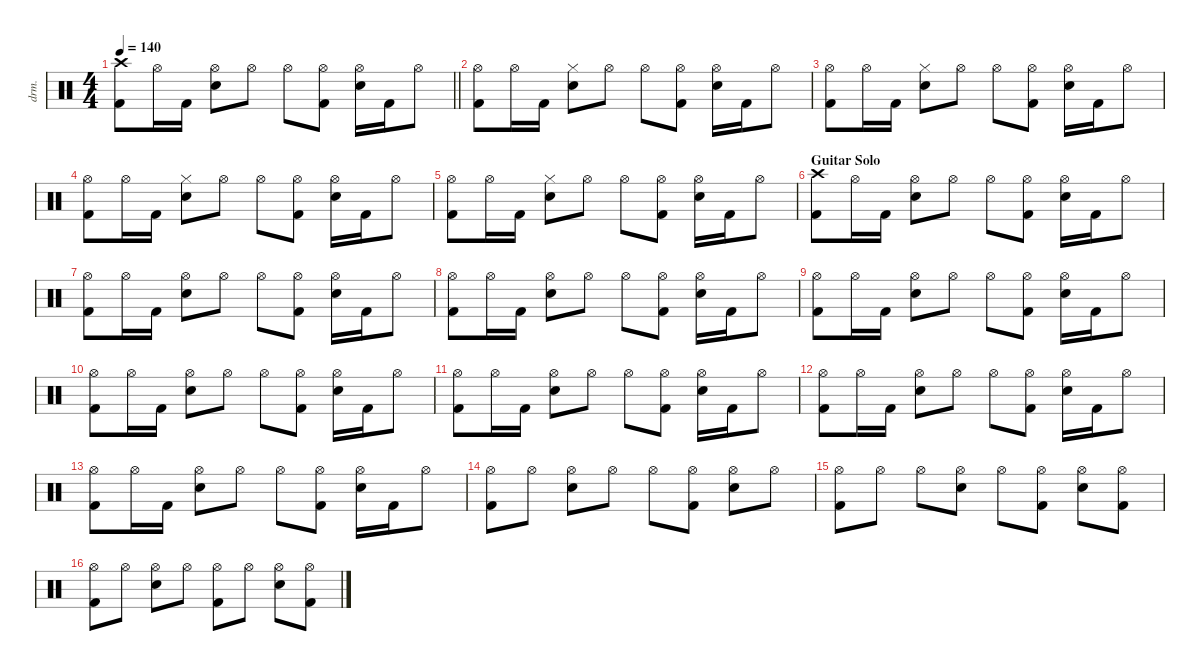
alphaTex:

\defaultSystemsLayout 4
\hideDynamics
\bracketExtendMode nobrackets
\otherSystemsTrackNameOrientation horizontal
\track ("Drums" "drm.") {defaultSystemsLayout 4 instrument percussion}
\staff {score}
\articulation defaults
\ts (4 4)
\tempo 140
\clef neutral
\barLineRight lightlight
\ks c
("Crash high (hit)" "Kick (hit) 2").8{dy mf beam Down} "Hi-Hat (open)".16{beam Down} "Kick (hit) 2".16{dy f beam Down} ("Hi-Hat (open)" "Snare (hit) 2").8{dy mf beam Down} "Hi-Hat (open)".8{beam Down} "Hi-Hat (open)".8{beam Down} ("Hi-Hat (open)" "Kick (hit) 2").8{beam Down} ("Hi-Hat (open)" "Snare (hit) 2").16{beam Down} "Kick (hit) 2".16{dy f beam Down} "Hi-Hat (open)".8{dy mf beam Down} |
("Hi-Hat (open)" "Kick (hit) 2").8{beam Down} "Hi-Hat (open)".16{beam Down} "Kick (hit) 2".16{dy f beam Down} ("Hi-Hat (closed)" "Snare (hit) 2").8{beam Down} "Hi-Hat (open)".8{dy mf beam Down} "Hi-Hat (open)".8{beam Down} ("Hi-Hat (open)" "Kick (hit) 2").8{beam Down} ("Hi-Hat (open)" "Snare (hit) 2").16{beam Down} "Kick (hit) 2".16{dy f beam Down} "Hi-Hat (open)".8{dy mf beam Down} |
("Hi-Hat (open)" "Kick (hit) 2").8{beam Down} "Hi-Hat (open)".16{beam Down} "Kick (hit) 2".16{dy f beam Down} ("Hi-Hat (closed)" "Snare (hit) 2").8{beam Down} "Hi-Hat (open)".8{dy mf beam Down} "Hi-Hat (open)".8{beam Down} ("Hi-Hat (open)" "Kick (hit) 2").8{beam Down} ("Hi-Hat (open)" "Snare (hit) 2").16{beam Down} "Kick (hit) 2".16{dy f beam Down} "Hi-Hat (open)".8{dy mf beam Down} |
("Hi-Hat (open)" "Kick (hit) 2").8{beam Down} "Hi-Hat (open)".16{beam Down} "Kick (hit) 2".16{dy f beam Down} ("Hi-Hat (closed)" "Snare (hit) 2").8{beam Down} "Hi-Hat (open)".8{dy mf beam Down} "Hi-Hat (open)".8{beam Down} ("Hi-Hat (open)" "Kick (hit) 2").8{beam Down} ("Hi-Hat (open)" "Snare (hit) 2").16{beam Down} "Kick (hit) 2".16{dy f beam Down} "Hi-Hat (open)".8{dy mf beam Down} |
("Hi-Hat (open)" "Kick (hit) 2").8{beam Down} "Hi-Hat (open)".16{beam Down} "Kick (hit) 2".16{dy f beam Down} ("Hi-Hat (closed)" "Snare (hit) 2").8{beam Down} "Hi-Hat (open)".8{dy mf beam Down} "Hi-Hat (open)".8{beam Down} ("Hi-Hat (open)" "Kick (hit) 2").8{beam Down} ("Hi-Hat (open)" "Snare (hit) 2").16{beam Down} "Kick (hit) 2".16{dy f beam Down} "Hi-Hat (open)".8{dy mf beam Down} |
\section ("" "Guitar Solo")
("Crash high (hit)" "Kick (hit) 2").8{beam Down} "Hi-Hat (open)".16{beam Down} "Kick (hit) 2".16{dy f beam Down} ("Hi-Hat (open)" "Snare (hit) 2").8{dy mf beam Down} "Hi-Hat (open)".8{beam Down} "Hi-Hat (open)".8{beam Down} ("Hi-Hat (open)" "Kick (hit) 2").8{beam Down} ("Hi-Hat (open)" "Snare (hit) 2").16{beam Down} "Kick (hit) 2".16{dy f beam Down} "Hi-Hat (open)".8{dy mf beam Down} |
("Hi-Hat (open)" "Kick (hit) 2").8{beam Down} "Hi-Hat (open)".16{beam Down} "Kick (hit) 2".16{dy f beam Down} ("Hi-Hat (open)" "Snare (hit) 2").8{dy mf beam Down} "Hi-Hat (open)".8{beam Down} "Hi-Hat (open)".8{beam Down} ("Hi-Hat (open)" "Kick (hit) 2").8{beam Down} ("Hi-Hat (open)" "Snare (hit) 2").16{beam Down} "Kick (hit) 2".16{dy f beam Down} "Hi-Hat (open)".8{dy mf beam Down} |
("Hi-Hat (open)" "Kick (hit) 2").8{beam Down} "Hi-Hat (open)".16{beam Down} "Kick (hit) 2".16{dy f beam Down} ("Hi-Hat (open)" "Snare (hit) 2").8{dy mf beam Down} "Hi-Hat (open)".8{beam Down} "Hi-Hat (open)".8{beam Down} ("Hi-Hat (open)" "Kick (hit) 2").8{beam Down} ("Hi-Hat (open)" "Snare (hit) 2").16{beam Down} "Kick (hit) 2".16{dy f beam Down} "Hi-Hat (open)".8{dy mf beam Down} |
("Hi-Hat (open)" "Kick (hit) 2").8{beam Down} "Hi-Hat (open)".16{beam Down} "Kick (hit) 2".16{dy f beam Down} ("Hi-Hat (open)" "Snare (hit) 2").8{dy mf beam Down} "Hi-Hat (open)".8{beam Down} "Hi-Hat (open)".8{beam Down} ("Hi-Hat (open)" "Kick (hit) 2").8{beam Down} ("Hi-Hat (open)" "Snare (hit) 2").16{beam Down} "Kick (hit) 2".16{dy f beam Down} "Hi-Hat (open)".8{dy mf beam Down} |
("Hi-Hat (open)" "Kick (hit) 2").8{beam Down} "Hi-Hat (open)".16{beam Down} "Kick (hit) 2".16{dy f beam Down} ("Hi-Hat (open)" "Snare (hit) 2").8{dy mf beam Down} "Hi-Hat (open)".8{beam Down} "Hi-Hat (open)".8{beam Down} ("Hi-Hat (open)" "Kick (hit) 2").8{beam Down} ("Hi-Hat (open)" "Snare (hit) 2").16{beam Down} "Kick (hit) 2".16{dy f beam Down} "Hi-Hat (open)".8{dy mf beam Down} |
("Hi-Hat (open)" "Kick (hit) 2").8{beam Down} "Hi-Hat (open)".16{beam Down} "Kick (hit) 2".16{dy f beam Down} ("Hi-Hat (open)" "Snare (hit) 2").8{dy mf beam Down} "Hi-Hat (open)".8{beam Down} "Hi-Hat (open)".8{beam Down} ("Hi-Hat (open)" "Kick (hit) 2").8{beam Down} ("Hi-Hat (open)" "Snare (hit) 2").16{beam Down} "Kick (hit) 2".16{dy f beam Down} "Hi-Hat (open)".8{dy mf beam Down} |
("Hi-Hat (open)" "Kick (hit) 2").8{beam Down} "Hi-Hat (open)".16{beam Down} "Kick (hit) 2".16{dy f beam Down} ("Hi-Hat (open)" "Snare (hit) 2").8{dy mf beam Down} "Hi-Hat (open)".8{beam Down} "Hi-Hat (open)".8{beam Down} ("Hi-Hat (open)" "Kick (hit) 2").8{beam Down} ("Hi-Hat (open)" "Snare (hit) 2").16{beam Down} "Kick (hit) 2".16{dy f beam Down} "Hi-Hat (open)".8{dy mf beam Down} |
("Hi-Hat (open)" "Kick (hit) 2").8{beam Down} "Hi-Hat (open)".16{beam Down} "Kick (hit) 2".16{dy f beam Down} ("Hi-Hat (open)" "Snare (hit) 2").8{dy mf beam Down} "Hi-Hat (open)".8{beam Down} "Hi-Hat (open)".8{beam Down} ("Hi-Hat (open)" "Kick (hit) 2").8{beam Down} ("Hi-Hat (open)" "Snare (hit) 2").16{beam Down} "Kick (hit) 2".16{dy f beam Down} "Hi-Hat (open)".8{dy mf beam Down} |
("Hi-Hat (open)" "Kick (hit) 2").8{beam Down} "Hi-Hat (open)".8{beam Down} ("Hi-Hat (open)" "Snare (hit) 2").8{beam Down} "Hi-Hat (open)".8{beam Down} "Hi-Hat (open)".8{beam Down} ("Hi-Hat (open)" "Kick (hit) 2").8{beam Down} ("Hi-Hat (open)" "Snare (hit) 2").8{beam Down} "Hi-Hat (open)".8{beam Down} |
("Hi-Hat (open)" "Kick (hit) 2").8{beam Down} "Hi-Hat (open)".8{beam Down} "Hi-Hat (open)".8{beam Down} ("Hi-Hat (open)" "Snare (hit) 2").8{beam Down} "Hi-Hat (open)".8{beam Down} ("Hi-Hat (open)" "Kick (hit) 2").8{beam Down} ("Hi-Hat (open)" "Snare (hit) 2").8{beam Down} ("Hi-Hat (open)" "Kick (hit) 2").8{beam Down} |
("Hi-Hat (open)" "Kick (hit) 2").8{beam Down} "Hi-Hat (open)".8{beam Down} ("Hi-Hat (open)" "Snare (hit) 2").8{beam Down} "Hi-Hat (open)".8{beam Down} ("Hi-Hat (open)" "Kick (hit) 2").8{beam Down} "Hi-Hat (open)".8{beam Down} ("Hi-Hat (open)" "Snare (hit) 2").8{beam Down} ("Hi-Hat (open)" "Kick (hit) 2").8{beam Down}
